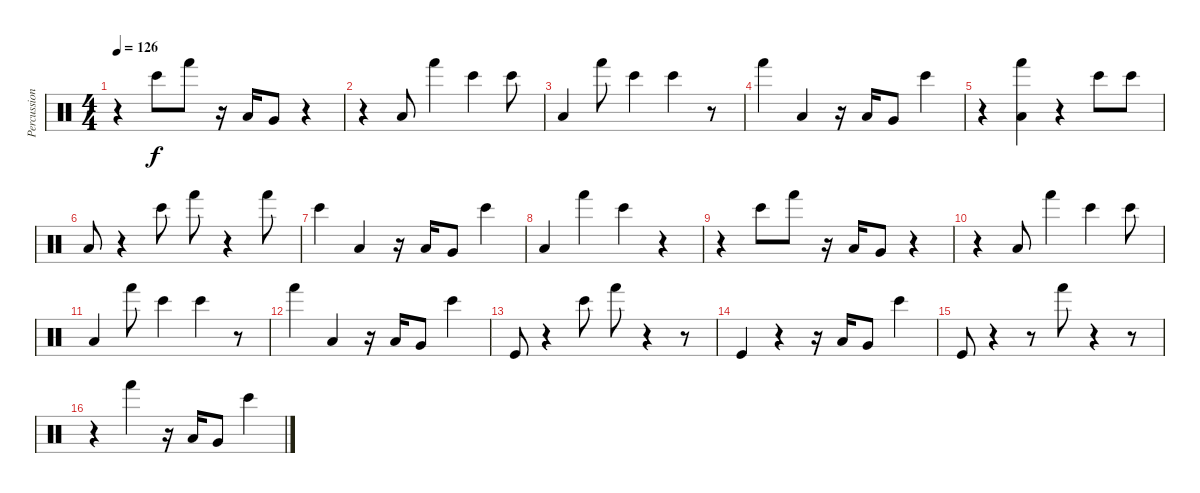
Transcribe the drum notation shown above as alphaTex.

\track ("Percussion" "Percussion") {instrument percussion}
\staff {score}
\articulation defaults
\ts (4 4)
\tempo 126
\clef neutral
\ks c
r.4{dy f} "Bongo High (hit)".8 "Hand (hit)".8 r.16 "Low Floor Tom (hit)".16 "Very Low Tom (hit)".8 r.4 |
r.4 "Low Floor Tom (hit)".8 "Hand (hit)".4 "Bongo High (hit)".4 "Bongo High (hit)".8 |
"Low Floor Tom (hit)".4 "Hand (hit)".8 "Bongo High (hit)".4 "Bongo High (hit)".4 r.8 |
"Hand (hit)".4 "Low Floor Tom (hit)".4 r.16 "Low Floor Tom (hit)".16 "Very Low Tom (hit)".8 "Bongo High (hit)".4 |
r.4 ("Low Floor Tom (hit)" "Hand (hit)").4 r.4 "Bongo High (hit)".8 "Bongo High (hit)".8 |
"Low Floor Tom (hit)".8 r.4 "Bongo High (hit)".8 "Hand (hit)".8 r.4 "Hand (hit)".8 |
"Bongo High (hit)".4 "Low Floor Tom (hit)".4 r.16 "Low Floor Tom (hit)".16 "Very Low Tom (hit)".8 "Bongo High (hit)".4 |
"Low Floor Tom (hit)".4 "Hand (hit)".4 "Bongo High (hit)".4 r.4 |
r.4 "Bongo High (hit)".8 "Hand (hit)".8 r.16 "Low Floor Tom (hit)".16 "Very Low Tom (hit)".8 r.4 |
r.4 "Low Floor Tom (hit)".8 "Hand (hit)".4 "Bongo High (hit)".4 "Bongo High (hit)".8 |
"Low Floor Tom (hit)".4 "Hand (hit)".8 "Bongo High (hit)".4 "Bongo High (hit)".4 r.8 |
"Hand (hit)".4 "Low Floor Tom (hit)".4 r.16 "Low Floor Tom (hit)".16 "Very Low Tom (hit)".8 "Bongo High (hit)".4 |
"Kick (hit)".8 r.4 "Bongo High (hit)".8 "Hand (hit)".8 r.4 r.8 |
"Kick (hit)".4 r.4 r.16 "Low Floor Tom (hit)".16 "Very Low Tom (hit)".8 "Bongo High (hit)".4 |
"Kick (hit)".8 r.4 r.8 "Hand (hit)".8 r.4 r.8 |
r.4 "Hand (hit)".4 r.16 "Low Floor Tom (hit)".16 "Very Low Tom (hit)".8 "Bongo High (hit)".4
